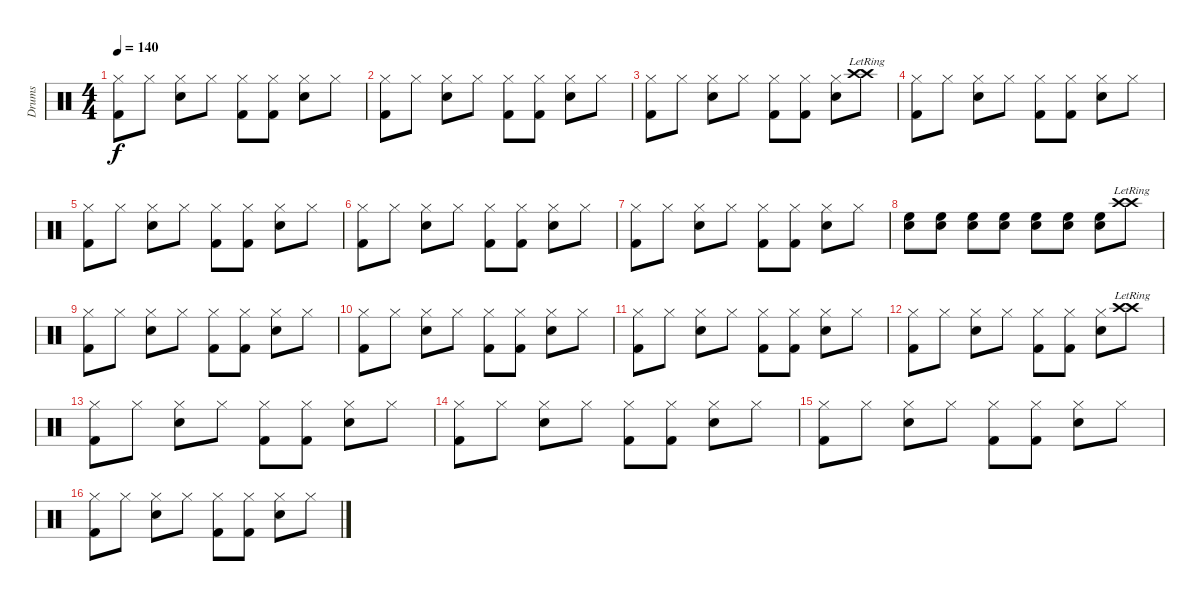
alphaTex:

\track ("Drums" "Drums") {instrument percussion}
\staff {score}
\articulation defaults
\ts (4 4)
\tempo 140
\clef neutral
\ks c
("Hi-Hat (closed)" "Kick (hit) 2").8{dy f} "Hi-Hat (closed)".8 ("Hi-Hat (closed)" "Snare (hit) 2").8 "Hi-Hat (closed)".8 ("Hi-Hat (closed)" "Kick (hit) 2").8 ("Hi-Hat (closed)" "Kick (hit) 2").8 ("Hi-Hat (closed)" "Snare (hit) 2").8 "Hi-Hat (closed)".8 |
("Hi-Hat (closed)" "Kick (hit) 2").8 "Hi-Hat (closed)".8 ("Hi-Hat (closed)" "Snare (hit) 2").8 "Hi-Hat (closed)".8 ("Hi-Hat (closed)" "Kick (hit) 2").8 ("Hi-Hat (closed)" "Kick (hit) 2").8 ("Hi-Hat (closed)" "Snare (hit) 2").8 "Hi-Hat (closed)".8 |
("Hi-Hat (closed)" "Kick (hit) 2").8 "Hi-Hat (closed)".8 ("Hi-Hat (closed)" "Snare (hit) 2").8 "Hi-Hat (closed)".8 ("Hi-Hat (closed)" "Kick (hit) 2").8 ("Hi-Hat (closed)" "Kick (hit) 2").8 ("Hi-Hat (closed)" "Snare (hit) 2").8 ("Crash high (hit)"{lr} "Crash high (hit)"{lr}).8 |
("Hi-Hat (closed)" "Kick (hit) 2").8 "Hi-Hat (closed)".8 ("Hi-Hat (closed)" "Snare (hit) 2").8 "Hi-Hat (closed)".8 ("Hi-Hat (closed)" "Kick (hit) 2").8 ("Hi-Hat (closed)" "Kick (hit) 2").8 ("Hi-Hat (closed)" "Snare (hit) 2").8 "Hi-Hat (closed)".8 |
("Hi-Hat (closed)" "Kick (hit) 2").8 "Hi-Hat (closed)".8 ("Hi-Hat (closed)" "Snare (hit) 2").8 "Hi-Hat (closed)".8 ("Hi-Hat (closed)" "Kick (hit) 2").8 ("Hi-Hat (closed)" "Kick (hit) 2").8 ("Hi-Hat (closed)" "Snare (hit) 2").8 "Hi-Hat (closed)".8 |
("Hi-Hat (closed)" "Kick (hit) 2").8 "Hi-Hat (closed)".8 ("Hi-Hat (closed)" "Snare (hit) 2").8 "Hi-Hat (closed)".8 ("Hi-Hat (closed)" "Kick (hit) 2").8 ("Hi-Hat (closed)" "Kick (hit) 2").8 ("Hi-Hat (closed)" "Snare (hit) 2").8 "Hi-Hat (closed)".8 |
("Hi-Hat (closed)" "Kick (hit) 2").8 "Hi-Hat (closed)".8 ("Hi-Hat (closed)" "Snare (hit) 2").8 "Hi-Hat (closed)".8 ("Hi-Hat (closed)" "Kick (hit) 2").8 ("Hi-Hat (closed)" "Kick (hit) 2").8 ("Hi-Hat (closed)" "Snare (hit) 2").8 "Hi-Hat (closed)".8 |
("High Floor Tom (hit)" "Snare (hit) 2").8 ("High Floor Tom (hit)" "Snare (hit) 2").8 ("High Floor Tom (hit)" "Snare (hit) 2").8 ("High Floor Tom (hit)" "Snare (hit) 2").8 ("High Floor Tom (hit)" "Snare (hit) 2").8 ("High Floor Tom (hit)" "Snare (hit) 2").8 ("High Floor Tom (hit)" "Snare (hit) 2").8 ("Crash high (hit)"{lr} "Crash high (hit)"{lr}).8 |
("Hi-Hat (closed)" "Kick (hit) 2").8 "Hi-Hat (closed)".8 ("Hi-Hat (closed)" "Snare (hit) 2").8 "Hi-Hat (closed)".8 ("Hi-Hat (closed)" "Kick (hit) 2").8 ("Hi-Hat (closed)" "Kick (hit) 2").8 ("Hi-Hat (closed)" "Snare (hit) 2").8 "Hi-Hat (closed)".8 |
("Hi-Hat (closed)" "Kick (hit) 2").8 "Hi-Hat (closed)".8 ("Hi-Hat (closed)" "Snare (hit) 2").8 "Hi-Hat (closed)".8 ("Hi-Hat (closed)" "Kick (hit) 2").8 ("Hi-Hat (closed)" "Kick (hit) 2").8 ("Hi-Hat (closed)" "Snare (hit) 2").8 "Hi-Hat (closed)".8 |
("Hi-Hat (closed)" "Kick (hit) 2").8 "Hi-Hat (closed)".8 ("Hi-Hat (closed)" "Snare (hit) 2").8 "Hi-Hat (closed)".8 ("Hi-Hat (closed)" "Kick (hit) 2").8 ("Hi-Hat (closed)" "Kick (hit) 2").8 ("Hi-Hat (closed)" "Snare (hit) 2").8 "Hi-Hat (closed)".8 |
("Hi-Hat (closed)" "Kick (hit) 2").8 "Hi-Hat (closed)".8 ("Hi-Hat (closed)" "Snare (hit) 2").8 "Hi-Hat (closed)".8 ("Hi-Hat (closed)" "Kick (hit) 2").8 ("Hi-Hat (closed)" "Kick (hit) 2").8 ("Hi-Hat (closed)" "Snare (hit) 2").8 ("Crash high (hit)"{lr} "Crash high (hit)"{lr}).8 |
("Hi-Hat (closed)" "Kick (hit) 2").8 "Hi-Hat (closed)".8 ("Hi-Hat (closed)" "Snare (hit) 2").8 "Hi-Hat (closed)".8 ("Hi-Hat (closed)" "Kick (hit) 2").8 ("Hi-Hat (closed)" "Kick (hit) 2").8 ("Hi-Hat (closed)" "Snare (hit) 2").8 "Hi-Hat (closed)".8 |
("Hi-Hat (closed)" "Kick (hit) 2").8 "Hi-Hat (closed)".8 ("Hi-Hat (closed)" "Snare (hit) 2").8 "Hi-Hat (closed)".8 ("Hi-Hat (closed)" "Kick (hit) 2").8 ("Hi-Hat (closed)" "Kick (hit) 2").8 ("Hi-Hat (closed)" "Snare (hit) 2").8 "Hi-Hat (closed)".8 |
("Hi-Hat (closed)" "Kick (hit) 2").8 "Hi-Hat (closed)".8 ("Hi-Hat (closed)" "Snare (hit) 2").8 "Hi-Hat (closed)".8 ("Hi-Hat (closed)" "Kick (hit) 2").8 ("Hi-Hat (closed)" "Kick (hit) 2").8 ("Hi-Hat (closed)" "Snare (hit) 2").8 "Hi-Hat (closed)".8 |
("Hi-Hat (closed)" "Kick (hit) 2").8 "Hi-Hat (closed)".8 ("Hi-Hat (closed)" "Snare (hit) 2").8 "Hi-Hat (closed)".8 ("Hi-Hat (closed)" "Kick (hit) 2").8 ("Hi-Hat (closed)" "Kick (hit) 2").8 ("Hi-Hat (closed)" "Snare (hit) 2").8 "Hi-Hat (closed)".8
